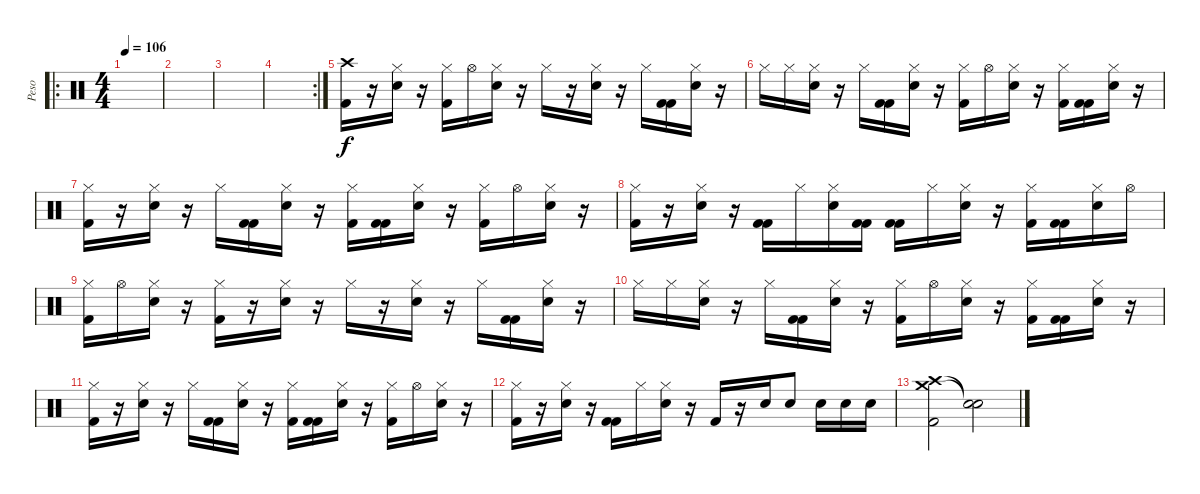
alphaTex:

\track ("Peso" "Peso") {instrument percussion}
\staff {score}
\articulation defaults
\ro
\ts (4 4)
\tempo 106
\clef neutral
\ks c
|
|
|
\rc 2
|
("Crash high (hit)" "Kick (hit) 2").16 r.16 ("Hi-Hat (closed)" "Snare (hit) 2").16 r.16 ("Hi-Hat (closed)" "Kick (hit) 2").16 "Hi-Hat (open)".16 ("Hi-Hat (closed)" "Snare (hit) 2").16 r.16 "Hi-Hat (closed)".16 r.16 ("Hi-Hat (closed)" "Snare (hit) 2").16 r.16 "Hi-Hat (closed)".16 ("Kick (hit) 2" "Kick (hit) 2").16 ("Hi-Hat (closed)" "Snare (hit) 2").16 r.16 |
"Hi-Hat (closed)".16 "Hi-Hat (closed)".16 ("Hi-Hat (closed)" "Snare (hit) 2").16 r.16 "Hi-Hat (closed)".16 ("Kick (hit) 2" "Kick (hit) 2").16 ("Hi-Hat (closed)" "Snare (hit) 2").16 r.16 ("Hi-Hat (closed)" "Kick (hit) 2").16 "Hi-Hat (open)".16 ("Hi-Hat (closed)" "Snare (hit) 2").16 r.16 ("Hi-Hat (closed)" "Kick (hit) 2").16 ("Kick (hit) 2" "Kick (hit) 2").16 ("Hi-Hat (closed)" "Snare (hit) 2").16 r.16 |
("Hi-Hat (closed)" "Kick (hit) 2").16 r.16 ("Hi-Hat (closed)" "Snare (hit) 2").16 r.16 "Hi-Hat (closed)".16 ("Kick (hit) 2" "Kick (hit) 2").16 ("Hi-Hat (closed)" "Snare (hit) 2").16 r.16 ("Hi-Hat (closed)" "Kick (hit) 2").16 ("Kick (hit) 2" "Kick (hit) 2").16 ("Hi-Hat (closed)" "Snare (hit) 2").16 r.16 ("Hi-Hat (closed)" "Kick (hit) 2").16 "Hi-Hat (open)".16 ("Hi-Hat (closed)" "Snare (hit) 2").16 r.16 |
("Hi-Hat (closed)" "Kick (hit) 2").16 r.16 ("Hi-Hat (closed)" "Snare (hit) 2").16 r.16 ("Kick (hit) 2" "Kick (hit) 2").16 "Hi-Hat (closed)".16 ("Hi-Hat (closed)" "Snare (hit) 2").16 ("Kick (hit) 2" "Kick (hit) 2").16 ("Kick (hit) 2" "Kick (hit) 2").16 "Hi-Hat (closed)".16 ("Hi-Hat (closed)" "Snare (hit) 2").16 r.16 ("Hi-Hat (closed)" "Kick (hit) 2").16 ("Kick (hit) 2" "Kick (hit) 2").16 ("Hi-Hat (closed)" "Snare (hit) 2").16 "Hi-Hat (open)".16 |
("Hi-Hat (closed)" "Kick (hit) 2").16 "Hi-Hat (open)".16 ("Hi-Hat (closed)" "Snare (hit) 2").16 r.16 ("Hi-Hat (closed)" "Kick (hit) 2").16 r.16 ("Hi-Hat (closed)" "Snare (hit) 2").16 r.16 "Hi-Hat (closed)".16 r.16 ("Hi-Hat (closed)" "Snare (hit) 2").16 r.16 "Hi-Hat (closed)".16 ("Kick (hit) 2" "Kick (hit) 2").16 ("Hi-Hat (closed)" "Snare (hit) 2").16 r.16 |
"Hi-Hat (closed)".16 "Hi-Hat (closed)".16 ("Hi-Hat (closed)" "Snare (hit) 2").16 r.16 "Hi-Hat (closed)".16 ("Kick (hit) 2" "Kick (hit) 2").16 ("Hi-Hat (closed)" "Snare (hit) 2").16 r.16 ("Hi-Hat (closed)" "Kick (hit) 2").16 "Hi-Hat (open)".16 ("Hi-Hat (closed)" "Snare (hit) 2").16 r.16 ("Hi-Hat (closed)" "Kick (hit) 2").16 ("Kick (hit) 2" "Kick (hit) 2").16 ("Hi-Hat (closed)" "Snare (hit) 2").16 r.16 |
("Hi-Hat (closed)" "Kick (hit) 2").16 r.16 ("Hi-Hat (closed)" "Snare (hit) 2").16 r.16 "Hi-Hat (closed)".16 ("Kick (hit) 2" "Kick (hit) 2").16 ("Hi-Hat (closed)" "Snare (hit) 2").16 r.16 ("Hi-Hat (closed)" "Kick (hit) 2").16 ("Kick (hit) 2" "Kick (hit) 2").16 ("Hi-Hat (closed)" "Snare (hit) 2").16 r.16 ("Hi-Hat (closed)" "Kick (hit) 2").16 "Hi-Hat (open)".16 ("Hi-Hat (closed)" "Snare (hit) 2").16 r.16 |
("Hi-Hat (closed)" "Kick (hit) 2").16 r.16 ("Hi-Hat (closed)" "Snare (hit) 2").16 r.16 ("Kick (hit) 2" "Kick (hit) 2").16 "Hi-Hat (closed)".16 ("Hi-Hat (closed)" "Snare (hit) 2").16 r.16 "Kick (hit) 2".16 r.16 "Snare (hit) 2".16 "Snare (hit) 2".8 "Snare (hit) 2".16 "Snare (hit) 2".16 "Snare (hit) 2".16 |
("Crash high (hit)" "Crash medium (hit)" "Kick (hit) 2").2 ("Snare (hit)"{t} "Snare (hit)"{t}).2
